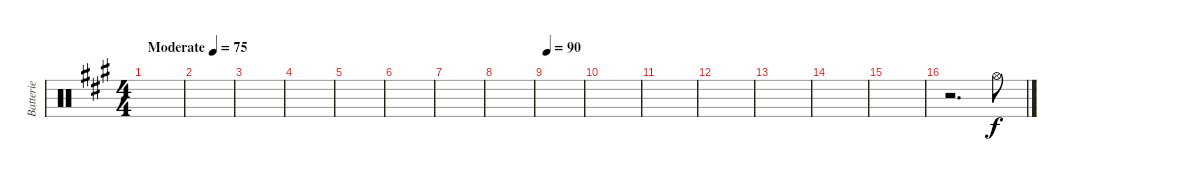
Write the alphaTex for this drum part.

\track ("Batterie" "Batterie") {instrument percussion}
\staff {score}
\articulation defaults
\ts (4 4)
\tempo (75 "Moderate")
\clef neutral
\ks a
|
|
|
|
|
|
|
|
\tempo 90
|
|
|
|
|
|
|
r.2{d} "Hi-Hat (open)".8
